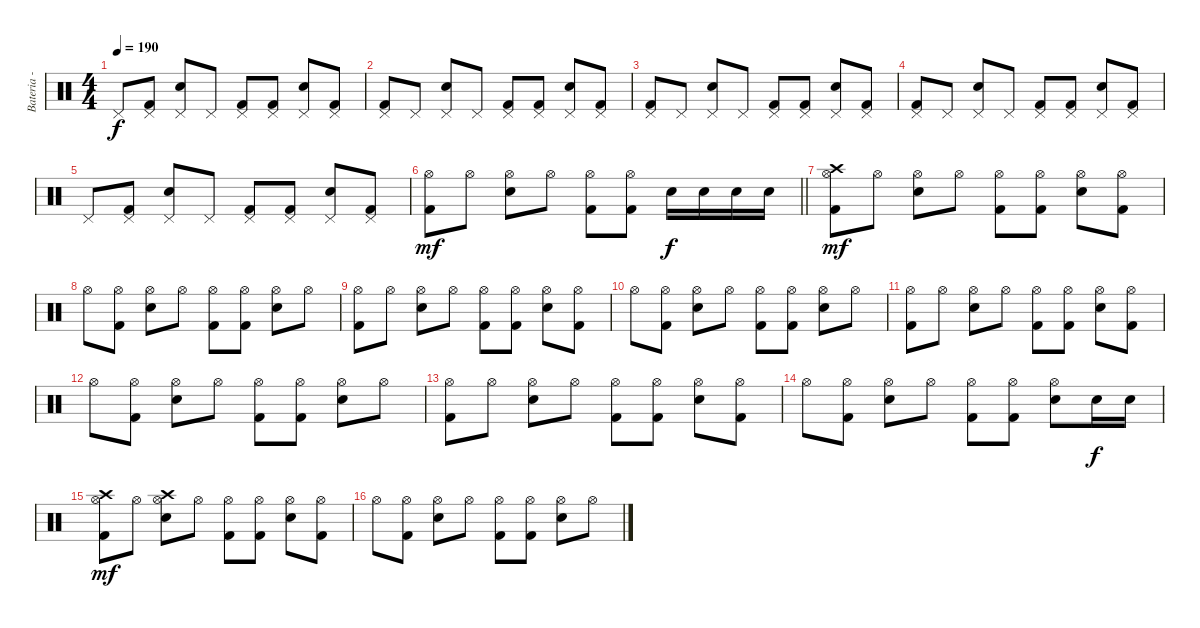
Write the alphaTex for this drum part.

\track ("Bateria - Larzon" "Bateria - ") {instrument percussion}
\staff {score}
\articulation defaults
\ts (4 4)
\tempo 190
\clef neutral
\ks c "Pedal Hi-Hat (hit)".8{dy f}
("Kick (hit) 2" "Pedal Hi-Hat (hit)").8 ("Electric Snare (hit)" "Pedal Hi-Hat (hit)").8 "Pedal Hi-Hat (hit)".8 ("Kick (hit) 2" "Pedal Hi-Hat (hit)").8 ("Kick (hit) 2" "Pedal Hi-Hat (hit)").8 ("Electric Snare (hit)" "Pedal Hi-Hat (hit)").8 ("Kick (hit) 2" "Pedal Hi-Hat (hit)").8 |
("Kick (hit) 2" "Pedal Hi-Hat (hit)").8 "Pedal Hi-Hat (hit)".8 ("Electric Snare (hit)" "Pedal Hi-Hat (hit)").8 "Pedal Hi-Hat (hit)".8 ("Kick (hit) 2" "Pedal Hi-Hat (hit)").8 ("Kick (hit) 2" "Pedal Hi-Hat (hit)").8 ("Electric Snare (hit)" "Pedal Hi-Hat (hit)").8 ("Kick (hit) 2" "Pedal Hi-Hat (hit)").8 |
("Kick (hit) 2" "Pedal Hi-Hat (hit)").8 "Pedal Hi-Hat (hit)".8 ("Electric Snare (hit)" "Pedal Hi-Hat (hit)").8 "Pedal Hi-Hat (hit)".8 ("Kick (hit) 2" "Pedal Hi-Hat (hit)").8 ("Kick (hit) 2" "Pedal Hi-Hat (hit)").8 ("Electric Snare (hit)" "Pedal Hi-Hat (hit)").8 ("Kick (hit) 2" "Pedal Hi-Hat (hit)").8 |
("Kick (hit) 2" "Pedal Hi-Hat (hit)").8 "Pedal Hi-Hat (hit)".8 ("Electric Snare (hit)" "Pedal Hi-Hat (hit)").8 "Pedal Hi-Hat (hit)".8 ("Kick (hit) 2" "Pedal Hi-Hat (hit)").8 ("Kick (hit) 2" "Pedal Hi-Hat (hit)").8 ("Electric Snare (hit)" "Pedal Hi-Hat (hit)").8 ("Kick (hit) 2" "Pedal Hi-Hat (hit)").8 |
"Pedal Hi-Hat (hit)".8 ("Kick (hit) 2" "Pedal Hi-Hat (hit)").8 ("Electric Snare (hit)" "Pedal Hi-Hat (hit)").8 "Pedal Hi-Hat (hit)".8 ("Kick (hit) 2" "Pedal Hi-Hat (hit)").8 ("Kick (hit) 2" "Pedal Hi-Hat (hit)").8 ("Electric Snare (hit)" "Pedal Hi-Hat (hit)").8 ("Kick (hit) 2" "Pedal Hi-Hat (hit)").8 |
\barLineRight lightlight
("Kick (hit) 2" "Hi-Hat (open)").8{dy mf} "Hi-Hat (open)".8 ("Electric Snare (hit)" "Hi-Hat (open)").8 "Hi-Hat (open)".8 ("Kick (hit) 2" "Hi-Hat (open)").8 ("Kick (hit) 2" "Hi-Hat (open)").8 "Electric Snare (hit)".16{dy f} "Electric Snare (hit)".16 "Electric Snare (hit)".16 "Electric Snare (hit)".16 |
("Kick (hit) 2" "Hi-Hat (open)" "Crash high (hit)").8{dy mf} "Hi-Hat (open)".8 ("Electric Snare (hit)" "Hi-Hat (open)").8 "Hi-Hat (open)".8 ("Kick (hit) 2" "Hi-Hat (open)").8 ("Kick (hit) 2" "Hi-Hat (open)").8 ("Electric Snare (hit)" "Hi-Hat (open)").8 ("Kick (hit) 2" "Hi-Hat (open)").8 |
"Hi-Hat (open)".8 ("Kick (hit) 2" "Hi-Hat (open)").8 ("Electric Snare (hit)" "Hi-Hat (open)").8 "Hi-Hat (open)".8 ("Kick (hit) 2" "Hi-Hat (open)").8 ("Kick (hit) 2" "Hi-Hat (open)").8 ("Electric Snare (hit)" "Hi-Hat (open)").8 "Hi-Hat (open)".8 |
("Kick (hit) 2" "Hi-Hat (open)").8 "Hi-Hat (open)".8 ("Electric Snare (hit)" "Hi-Hat (open)").8 "Hi-Hat (open)".8 ("Kick (hit) 2" "Hi-Hat (open)").8 ("Kick (hit) 2" "Hi-Hat (open)").8 ("Electric Snare (hit)" "Hi-Hat (open)").8 ("Kick (hit) 2" "Hi-Hat (open)").8 |
"Hi-Hat (open)".8 ("Kick (hit) 2" "Hi-Hat (open)").8 ("Electric Snare (hit)" "Hi-Hat (open)").8 "Hi-Hat (open)".8 ("Kick (hit) 2" "Hi-Hat (open)").8 ("Kick (hit) 2" "Hi-Hat (open)").8 ("Electric Snare (hit)" "Hi-Hat (open)").8 "Hi-Hat (open)".8 |
("Kick (hit) 2" "Hi-Hat (open)").8 "Hi-Hat (open)".8 ("Electric Snare (hit)" "Hi-Hat (open)").8 "Hi-Hat (open)".8 ("Kick (hit) 2" "Hi-Hat (open)").8 ("Kick (hit) 2" "Hi-Hat (open)").8 ("Electric Snare (hit)" "Hi-Hat (open)").8 ("Kick (hit) 2" "Hi-Hat (open)").8 |
"Hi-Hat (open)".8 ("Kick (hit) 2" "Hi-Hat (open)").8 ("Electric Snare (hit)" "Hi-Hat (open)").8 "Hi-Hat (open)".8 ("Kick (hit) 2" "Hi-Hat (open)").8 ("Kick (hit) 2" "Hi-Hat (open)").8 ("Electric Snare (hit)" "Hi-Hat (open)").8 "Hi-Hat (open)".8 |
("Kick (hit) 2" "Hi-Hat (open)").8 "Hi-Hat (open)".8 ("Electric Snare (hit)" "Hi-Hat (open)").8 "Hi-Hat (open)".8 ("Kick (hit) 2" "Hi-Hat (open)").8 ("Kick (hit) 2" "Hi-Hat (open)").8 ("Electric Snare (hit)" "Hi-Hat (open)").8 ("Kick (hit) 2" "Hi-Hat (open)").8 |
"Hi-Hat (open)".8 ("Kick (hit) 2" "Hi-Hat (open)").8 ("Electric Snare (hit)" "Hi-Hat (open)").8 "Hi-Hat (open)".8 ("Kick (hit) 2" "Hi-Hat (open)").8 ("Kick (hit) 2" "Hi-Hat (open)").8 ("Electric Snare (hit)" "Hi-Hat (open)").8 "Electric Snare (hit)".16{dy f} "Electric Snare (hit)".16 |
("Kick (hit) 2" "Hi-Hat (open)" "Crash high (hit)").8{dy mf} "Hi-Hat (open)".8 ("Electric Snare (hit)" "Hi-Hat (open)" "Crash high (hit)").8 "Hi-Hat (open)".8 ("Kick (hit) 2" "Hi-Hat (open)").8 ("Kick (hit) 2" "Hi-Hat (open)").8 ("Electric Snare (hit)" "Hi-Hat (open)").8 ("Kick (hit) 2" "Hi-Hat (open)").8 |
"Hi-Hat (open)".8 ("Kick (hit) 2" "Hi-Hat (open)").8 ("Electric Snare (hit)" "Hi-Hat (open)").8 "Hi-Hat (open)".8 ("Kick (hit) 2" "Hi-Hat (open)").8 ("Kick (hit) 2" "Hi-Hat (open)").8 ("Electric Snare (hit)" "Hi-Hat (open)").8 "Hi-Hat (open)".8
